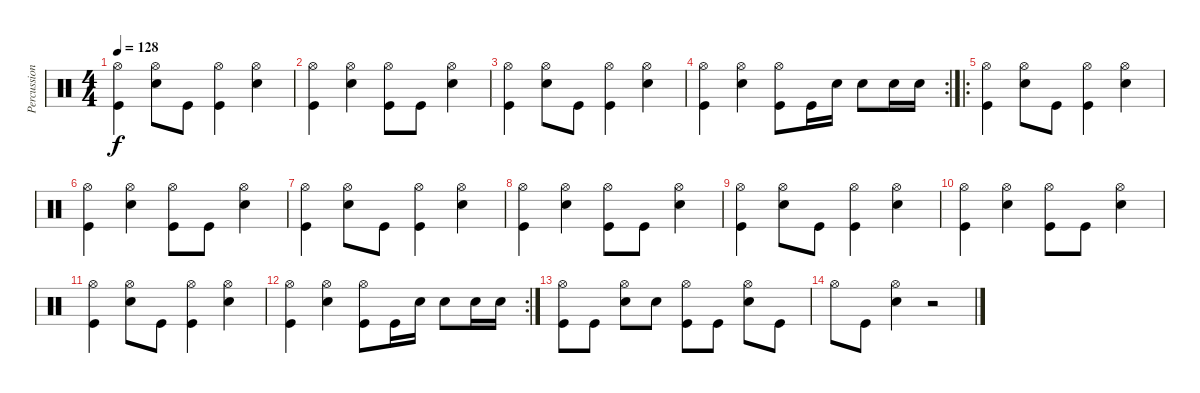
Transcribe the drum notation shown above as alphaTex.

\track ("Percussion" "Percussion") {instrument percussion}
\staff {score}
\articulation defaults
\ts (4 4)
\tempo 128
\clef neutral
\ks c
("Hi-Hat (open)" "Kick (hit)").4{dy f} ("Hi-Hat (open)" "Snare (hit) 2").8 "Kick (hit)".8 ("Hi-Hat (open)" "Kick (hit)").4 ("Hi-Hat (open)" "Snare (hit) 2").4 |
("Hi-Hat (open)" "Kick (hit)").4 ("Hi-Hat (open)" "Snare (hit) 2").4 ("Hi-Hat (open)" "Kick (hit)").8 "Kick (hit)".8 ("Hi-Hat (open)" "Snare (hit) 2").4 |
("Hi-Hat (open)" "Kick (hit)").4 ("Hi-Hat (open)" "Snare (hit) 2").8 "Kick (hit)".8 ("Hi-Hat (open)" "Kick (hit)").4 ("Hi-Hat (open)" "Snare (hit) 2").4 |
\rc 2
("Hi-Hat (open)" "Kick (hit)").4 ("Hi-Hat (open)" "Snare (hit) 2").4 ("Hi-Hat (open)" "Kick (hit)").8 "Kick (hit)".16 "Snare (hit) 2".16 "Snare (hit) 2".8 "Snare (hit) 2".16 "Snare (hit) 2".16 |
\ro
("Hi-Hat (open)" "Kick (hit)").4 ("Hi-Hat (open)" "Snare (hit) 2").8 "Kick (hit)".8 ("Hi-Hat (open)" "Kick (hit)").4 ("Hi-Hat (open)" "Snare (hit) 2").4 |
("Hi-Hat (open)" "Kick (hit)").4 ("Hi-Hat (open)" "Snare (hit) 2").4 ("Hi-Hat (open)" "Kick (hit)").8 "Kick (hit)".8 ("Hi-Hat (open)" "Snare (hit) 2").4 |
("Hi-Hat (open)" "Kick (hit)").4 ("Hi-Hat (open)" "Snare (hit) 2").8 "Kick (hit)".8 ("Hi-Hat (open)" "Kick (hit)").4 ("Hi-Hat (open)" "Snare (hit) 2").4 |
("Hi-Hat (open)" "Kick (hit)").4 ("Hi-Hat (open)" "Snare (hit) 2").4 ("Hi-Hat (open)" "Kick (hit)").8 "Kick (hit)".8 ("Hi-Hat (open)" "Snare (hit) 2").4 |
("Hi-Hat (open)" "Kick (hit)").4 ("Hi-Hat (open)" "Snare (hit) 2").8 "Kick (hit)".8 ("Hi-Hat (open)" "Kick (hit)").4 ("Hi-Hat (open)" "Snare (hit) 2").4 |
("Hi-Hat (open)" "Kick (hit)").4 ("Hi-Hat (open)" "Snare (hit) 2").4 ("Hi-Hat (open)" "Kick (hit)").8 "Kick (hit)".8 ("Hi-Hat (open)" "Snare (hit) 2").4 |
("Hi-Hat (open)" "Kick (hit)").4 ("Hi-Hat (open)" "Snare (hit) 2").8 "Kick (hit)".8 ("Hi-Hat (open)" "Kick (hit)").4 ("Hi-Hat (open)" "Snare (hit) 2").4 |
\rc 2
("Hi-Hat (open)" "Kick (hit)").4 ("Hi-Hat (open)" "Snare (hit) 2").4 ("Hi-Hat (open)" "Kick (hit)").8 "Kick (hit)".16 "Snare (hit) 2".16 "Snare (hit) 2".8 "Snare (hit) 2".16 "Snare (hit) 2".16 |
("Hi-Hat (open)" "Kick (hit)").8 "Kick (hit)".8 ("Hi-Hat (open)" "Snare (hit) 2").8 "Snare (hit) 2".8 ("Hi-Hat (open)" "Kick (hit)").8 "Kick (hit)".8 ("Hi-Hat (open)" "Snare (hit) 2").8 "Kick (hit)".8 |
"Hi-Hat (open)".8 "Kick (hit)".8 ("Hi-Hat (open)" "Snare (hit) 2").4 r.2
